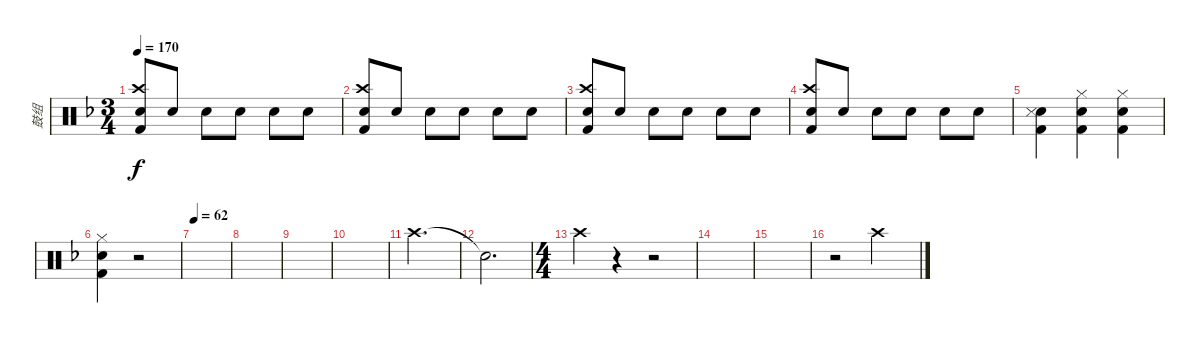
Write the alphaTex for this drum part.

\track ("鼓组" "鼓组") {instrument percussion}
\staff {score}
\articulation defaults
\ts (3 4)
\tempo 170
\clef neutral
\ks f
("Snare (hit) 2" "Crash high (hit)" "Kick (hit) 2").8{dy f} "Snare (hit) 2".8 "Snare (hit) 2".8 "Snare (hit) 2".8 "Snare (hit) 2".8 "Snare (hit) 2".8 |
("Snare (hit) 2" "Crash high (hit)" "Kick (hit) 2").8 "Snare (hit) 2".8 "Snare (hit) 2".8 "Snare (hit) 2".8 "Snare (hit) 2".8 "Snare (hit) 2".8 |
("Snare (hit) 2" "Crash high (hit)" "Kick (hit) 2").8 "Snare (hit) 2".8 "Snare (hit) 2".8 "Snare (hit) 2".8 "Snare (hit) 2".8 "Snare (hit) 2".8 |
("Snare (hit) 2" "Crash high (hit)" "Kick (hit) 2").8 "Snare (hit) 2".8 "Snare (hit) 2".8 "Snare (hit) 2".8 "Snare (hit) 2".8 "Snare (hit) 2".8 |
("Snare (hit) 2" "Snare (side stick) 3" "Kick (hit) 2").4 ("Snare (hit) 2" "Hi-Hat (closed)" "Kick (hit) 2").4 ("Snare (hit) 2" "Hi-Hat (closed)" "Kick (hit) 2").4 |
("Snare (hit) 2" "Hi-Hat (closed)" "Kick (hit) 2").4 r.2 |
\tempo 62
|
|
|
|
"Crash high (hit)".2{d} |
"Snare (hit)"{t}.2{d} |
\ts (4 4)
"Crash high (hit)".4 r.4 r.2 |
|
|
r.2 "Crash high (hit)".2
